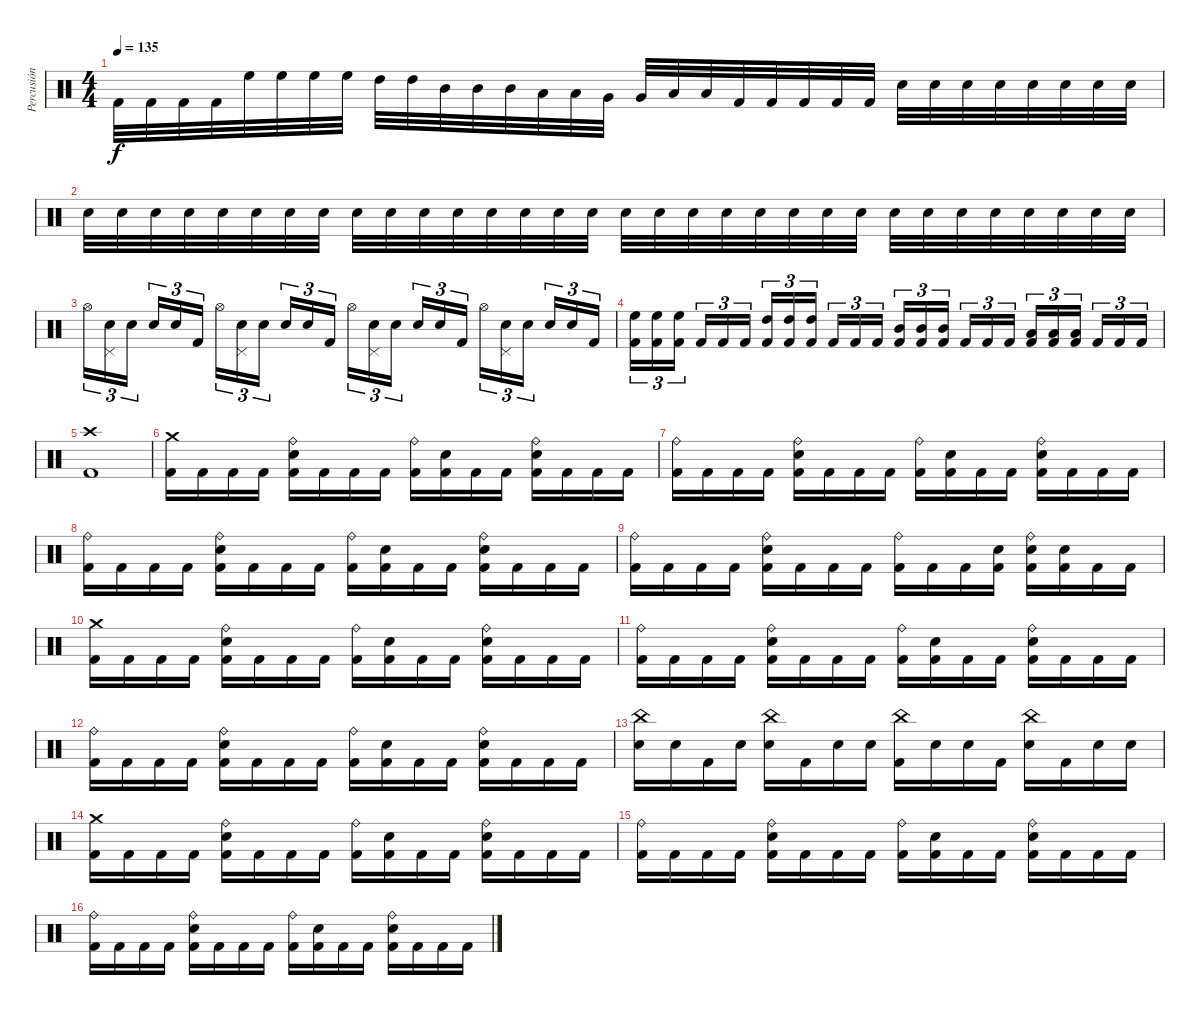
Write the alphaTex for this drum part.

\track ("Percusión" "Percusión") {instrument percussion}
\staff {score}
\articulation defaults
\ts (4 4)
\tempo 135
\clef neutral
\ks c "Kick (hit) 2".32{dy f} "Kick (hit) 2".32 "Kick (hit) 2".32 "Kick (hit) 2".32 "High Floor Tom (hit)".32 "High Floor Tom (hit)".32 "High Floor Tom (hit)".32 "High Floor Tom (hit)".32 "High Tom (hit)".32 "High Tom (hit)".32 "Mid Tom (hit)".32 "Mid Tom (hit)".32 "Mid Tom (hit)".32 "Low Tom (hit)".32 "Low Tom (hit)".32 "Very Low Tom (hit)".32 "Very Low Tom (hit)".32 "Low Floor Tom (hit)".32 "Low Floor Tom (hit)".32 "Kick (hit) 2".32 "Kick (hit) 2".32 "Kick (hit) 2".32 "Kick (hit) 2".32 "Kick (hit) 2".32 "Electric Snare (hit)".32 "Electric Snare (hit)".32 "Electric Snare (hit)".32 "Electric Snare (hit)".32 "Electric Snare (hit)".32 "Electric Snare (hit)".32 "Electric Snare (hit)".32 "Electric Snare (hit)".32
|
"Electric Snare (hit)".32 "Electric Snare (hit)".32 "Electric Snare (hit)".32 "Electric Snare (hit)".32 "Electric Snare (hit)".32 "Electric Snare (hit)".32 "Electric Snare (hit)".32 "Electric Snare (hit)".32 "Electric Snare (hit)".32 "Electric Snare (hit)".32 "Electric Snare (hit)".32 "Electric Snare (hit)".32 "Electric Snare (hit)".32 "Electric Snare (hit)".32 "Electric Snare (hit)".32 "Electric Snare (hit)".32 "Electric Snare (hit)".32 "Electric Snare (hit)".32 "Electric Snare (hit)".32 "Electric Snare (hit)".32 "Electric Snare (hit)".32 "Electric Snare (hit)".32 "Electric Snare (hit)".32 "Electric Snare (hit)".32 "Electric Snare (hit)".32 "Electric Snare (hit)".32 "Electric Snare (hit)".32 "Electric Snare (hit)".32 "Electric Snare (hit)".32 "Electric Snare (hit)".32 "Electric Snare (hit)".32 "Electric Snare (hit)".32 |
"Hi-Hat (open)".16{tu (3 2)} ("Pedal Hi-Hat (hit)" "Electric Snare (hit)").16{tu (3 2)} "Electric Snare (hit)".16{tu (3 2) beam splitsecondary} "Electric Snare (hit)".16{tu (3 2)} "Electric Snare (hit)".16{tu (3 2)} "Kick (hit) 2".16{tu (3 2)} "Hi-Hat (open)".16{tu (3 2)} ("Pedal Hi-Hat (hit)" "Electric Snare (hit)").16{tu (3 2)} "Electric Snare (hit)".16{tu (3 2) beam splitsecondary} "Electric Snare (hit)".16{tu (3 2)} "Electric Snare (hit)".16{tu (3 2)} "Kick (hit) 2".16{tu (3 2)} "Hi-Hat (open)".16{tu (3 2)} ("Pedal Hi-Hat (hit)" "Electric Snare (hit)").16{tu (3 2)} "Electric Snare (hit)".16{tu (3 2) beam splitsecondary} "Electric Snare (hit)".16{tu (3 2)} "Electric Snare (hit)".16{tu (3 2)} "Kick (hit) 2".16{tu (3 2)} "Hi-Hat (open)".16{tu (3 2)} ("Pedal Hi-Hat (hit)" "Electric Snare (hit)").16{tu (3 2)} "Electric Snare (hit)".16{tu (3 2) beam splitsecondary} "Electric Snare (hit)".16{tu (3 2)} "Electric Snare (hit)".16{tu (3 2)} "Kick (hit) 2".16{tu (3 2)} |
("High Floor Tom (hit)" "Kick (hit) 2").16{tu (3 2)} ("High Floor Tom (hit)" "Kick (hit) 2").16{tu (3 2)} ("High Floor Tom (hit)" "Kick (hit) 2").16{tu (3 2) beam splitsecondary} "Kick (hit) 2".16{tu (3 2)} "Kick (hit) 2".16{tu (3 2)} "Kick (hit) 2".16{tu (3 2)} ("High Tom (hit)" "Kick (hit) 2").16{tu (3 2)} ("High Tom (hit)" "Kick (hit) 2").16{tu (3 2)} ("High Tom (hit)" "Kick (hit) 2").16{tu (3 2) beam splitsecondary} "Kick (hit) 2".16{tu (3 2)} "Kick (hit) 2".16{tu (3 2)} "Kick (hit) 2".16{tu (3 2)} ("Mid Tom (hit)" "Kick (hit) 2").16{tu (3 2)} ("Mid Tom (hit)" "Kick (hit) 2").16{tu (3 2)} ("Mid Tom (hit)" "Kick (hit) 2").16{tu (3 2) beam splitsecondary} "Kick (hit) 2".16{tu (3 2)} "Kick (hit) 2".16{tu (3 2)} "Kick (hit) 2".16{tu (3 2)} ("Low Tom (hit)" "Kick (hit) 2").16{tu (3 2)} ("Low Tom (hit)" "Kick (hit) 2").16{tu (3 2)} ("Low Tom (hit)" "Kick (hit) 2").16{tu (3 2) beam splitsecondary} "Kick (hit) 2".16{tu (3 2)} "Kick (hit) 2".16{tu (3 2)} "Kick (hit) 2".16{tu (3 2)} |
("Crash high (hit)" "Kick (hit) 2").1 |
("Crash medium (hit)" "Kick (hit) 2").16 "Kick (hit) 2".16 "Kick (hit) 2".16 "Kick (hit) 2".16 ("Ride (bell)" "Electric Snare (hit)" "Kick (hit) 2").16 "Kick (hit) 2".16 "Kick (hit) 2".16 "Kick (hit) 2".16 ("Ride (bell)" "Kick (hit) 2").16 ("Electric Snare (hit)" "Kick (hit) 2").16 "Kick (hit) 2".16 "Kick (hit) 2".16 ("Ride (bell)" "Electric Snare (hit)" "Kick (hit) 2").16 "Kick (hit) 2".16 "Kick (hit) 2".16 "Kick (hit) 2".16 |
("Ride (bell)" "Kick (hit) 2").16 "Kick (hit) 2".16 "Kick (hit) 2".16 "Kick (hit) 2".16 ("Ride (bell)" "Electric Snare (hit)" "Kick (hit) 2").16 "Kick (hit) 2".16 "Kick (hit) 2".16 "Kick (hit) 2".16 ("Ride (bell)" "Kick (hit) 2").16 ("Electric Snare (hit)" "Kick (hit) 2").16 "Kick (hit) 2".16 "Kick (hit) 2".16 ("Ride (bell)" "Electric Snare (hit)" "Kick (hit) 2").16 "Kick (hit) 2".16 "Kick (hit) 2".16 "Kick (hit) 2".16 |
("Ride (bell)" "Kick (hit) 2").16 "Kick (hit) 2".16 "Kick (hit) 2".16 "Kick (hit) 2".16 ("Ride (bell)" "Electric Snare (hit)" "Kick (hit) 2").16 "Kick (hit) 2".16 "Kick (hit) 2".16 "Kick (hit) 2".16 ("Ride (bell)" "Kick (hit) 2").16 ("Electric Snare (hit)" "Kick (hit) 2").16 "Kick (hit) 2".16 "Kick (hit) 2".16 ("Ride (bell)" "Electric Snare (hit)" "Kick (hit) 2").16 "Kick (hit) 2".16 "Kick (hit) 2".16 "Kick (hit) 2".16 |
("Ride (bell)" "Kick (hit) 2").16 "Kick (hit) 2".16 "Kick (hit) 2".16 "Kick (hit) 2".16 ("Ride (bell)" "Electric Snare (hit)" "Kick (hit) 2").16 "Kick (hit) 2".16 "Kick (hit) 2".16 "Kick (hit) 2".16 ("Ride (bell)" "Kick (hit) 2").16 "Kick (hit) 2".16 "Kick (hit) 2".16 ("Electric Snare (hit)" "Kick (hit) 2").16 ("Ride (bell)" "Electric Snare (hit)" "Kick (hit) 2").16 ("Electric Snare (hit)" "Kick (hit) 2").16 "Kick (hit) 2".16 "Kick (hit) 2".16 |
("Crash medium (hit)" "Kick (hit) 2").16 "Kick (hit) 2".16 "Kick (hit) 2".16 "Kick (hit) 2".16 ("Ride (bell)" "Electric Snare (hit)" "Kick (hit) 2").16 "Kick (hit) 2".16 "Kick (hit) 2".16 "Kick (hit) 2".16 ("Ride (bell)" "Kick (hit) 2").16 ("Electric Snare (hit)" "Kick (hit) 2").16 "Kick (hit) 2".16 "Kick (hit) 2".16 ("Ride (bell)" "Electric Snare (hit)" "Kick (hit) 2").16 "Kick (hit) 2".16 "Kick (hit) 2".16 "Kick (hit) 2".16 |
("Ride (bell)" "Kick (hit) 2").16 "Kick (hit) 2".16 "Kick (hit) 2".16 "Kick (hit) 2".16 ("Ride (bell)" "Electric Snare (hit)" "Kick (hit) 2").16 "Kick (hit) 2".16 "Kick (hit) 2".16 "Kick (hit) 2".16 ("Ride (bell)" "Kick (hit) 2").16 ("Electric Snare (hit)" "Kick (hit) 2").16 "Kick (hit) 2".16 "Kick (hit) 2".16 ("Ride (bell)" "Electric Snare (hit)" "Kick (hit) 2").16 "Kick (hit) 2".16 "Kick (hit) 2".16 "Kick (hit) 2".16 |
("Ride (bell)" "Kick (hit) 2").16 "Kick (hit) 2".16 "Kick (hit) 2".16 "Kick (hit) 2".16 ("Ride (bell)" "Electric Snare (hit)" "Kick (hit) 2").16 "Kick (hit) 2".16 "Kick (hit) 2".16 "Kick (hit) 2".16 ("Ride (bell)" "Kick (hit) 2").16 ("Electric Snare (hit)" "Kick (hit) 2").16 "Kick (hit) 2".16 "Kick (hit) 2".16 ("Ride (bell)" "Electric Snare (hit)" "Kick (hit) 2").16 "Kick (hit) 2".16 "Kick (hit) 2".16 "Kick (hit) 2".16 |
("China (hit)" "Electric Snare (hit)").16 "Electric Snare (hit)".16 "Kick (hit) 2".16 "Electric Snare (hit)".16 ("China (hit)" "Electric Snare (hit)").16 "Kick (hit) 2".16 "Electric Snare (hit)".16 "Electric Snare (hit)".16 ("China (hit)" "Kick (hit) 2").16 "Electric Snare (hit)".16 "Electric Snare (hit)".16 "Kick (hit) 2".16 ("China (hit)" "Electric Snare (hit)").16 "Kick (hit) 2".16 "Electric Snare (hit)".16 "Electric Snare (hit)".16 |
("Crash medium (hit)" "Kick (hit) 2").16 "Kick (hit) 2".16 "Kick (hit) 2".16 "Kick (hit) 2".16 ("Ride (bell)" "Electric Snare (hit)" "Kick (hit) 2").16 "Kick (hit) 2".16 "Kick (hit) 2".16 "Kick (hit) 2".16 ("Ride (bell)" "Kick (hit) 2").16 ("Electric Snare (hit)" "Kick (hit) 2").16 "Kick (hit) 2".16 "Kick (hit) 2".16 ("Ride (bell)" "Electric Snare (hit)" "Kick (hit) 2").16 "Kick (hit) 2".16 "Kick (hit) 2".16 "Kick (hit) 2".16 |
("Ride (bell)" "Kick (hit) 2").16 "Kick (hit) 2".16 "Kick (hit) 2".16 "Kick (hit) 2".16 ("Ride (bell)" "Electric Snare (hit)" "Kick (hit) 2").16 "Kick (hit) 2".16 "Kick (hit) 2".16 "Kick (hit) 2".16 ("Ride (bell)" "Kick (hit) 2").16 ("Electric Snare (hit)" "Kick (hit) 2").16 "Kick (hit) 2".16 "Kick (hit) 2".16 ("Ride (bell)" "Electric Snare (hit)" "Kick (hit) 2").16 "Kick (hit) 2".16 "Kick (hit) 2".16 "Kick (hit) 2".16 |
("Ride (bell)" "Kick (hit) 2").16 "Kick (hit) 2".16 "Kick (hit) 2".16 "Kick (hit) 2".16 ("Ride (bell)" "Electric Snare (hit)" "Kick (hit) 2").16 "Kick (hit) 2".16 "Kick (hit) 2".16 "Kick (hit) 2".16 ("Ride (bell)" "Kick (hit) 2").16 ("Electric Snare (hit)" "Kick (hit) 2").16 "Kick (hit) 2".16 "Kick (hit) 2".16 ("Ride (bell)" "Electric Snare (hit)" "Kick (hit) 2").16 "Kick (hit) 2".16 "Kick (hit) 2".16 "Kick (hit) 2".16
